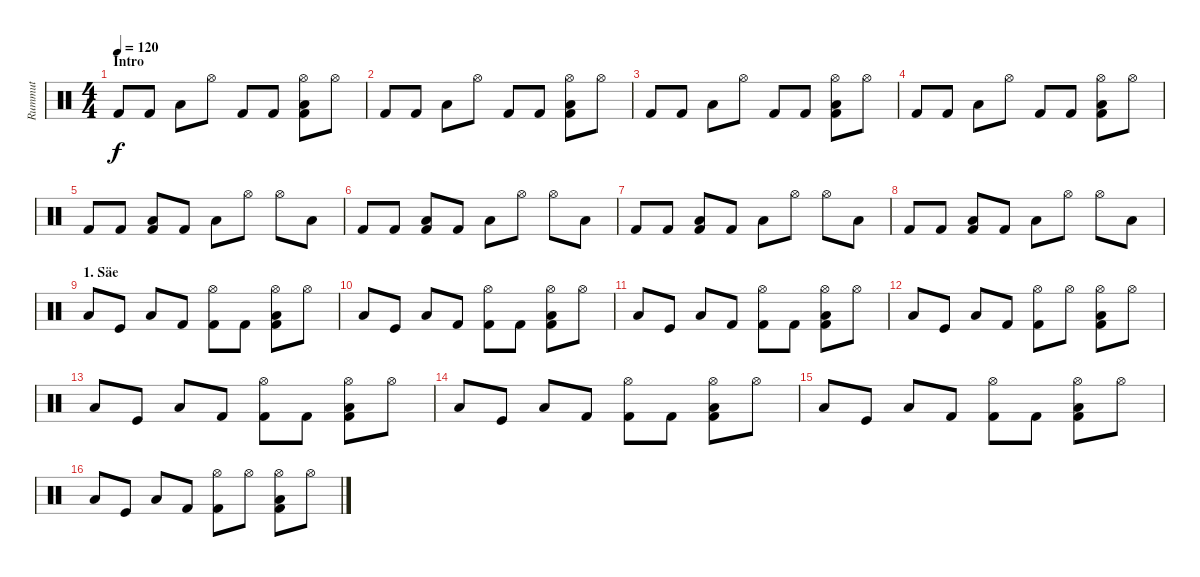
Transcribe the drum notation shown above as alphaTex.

\track ("Rummut" "Rummut") {instrument percussion}
\staff {score}
\articulation defaults
\ts (4 4)
\section ("" "Intro")
\tempo 120
\clef neutral
\ks c "Kick (hit) 2".8{dy f} "Kick (hit) 2".8 "Low Tom (hit)".8 "Hi-Hat (open)".8 "Kick (hit) 2".8 "Kick (hit) 2".8
("Low Tom (hit)" "Kick (hit) 2" "Hi-Hat (open)").8 "Hi-Hat (open)".8 |
"Kick (hit) 2".8 "Kick (hit) 2".8 "Low Tom (hit)".8 "Hi-Hat (open)".8 "Kick (hit) 2".8 "Kick (hit) 2".8 ("Low Tom (hit)" "Kick (hit) 2" "Hi-Hat (open)").8 "Hi-Hat (open)".8 |
"Kick (hit) 2".8 "Kick (hit) 2".8 "Low Tom (hit)".8 "Hi-Hat (open)".8 "Kick (hit) 2".8 "Kick (hit) 2".8 ("Low Tom (hit)" "Kick (hit) 2" "Hi-Hat (open)").8 "Hi-Hat (open)".8 |
"Kick (hit) 2".8 "Kick (hit) 2".8 "Low Tom (hit)".8 "Hi-Hat (open)".8 "Kick (hit) 2".8 "Kick (hit) 2".8 ("Low Tom (hit)" "Kick (hit) 2" "Hi-Hat (open)").8 "Hi-Hat (open)".8 |
"Kick (hit) 2".8 "Kick (hit) 2".8 ("Kick (hit) 2" "Low Tom (hit)").8 "Kick (hit) 2".8 "Low Tom (hit)".8 "Hi-Hat (open)".8 "Hi-Hat (open)".8 "Low Tom (hit)".8 |
"Kick (hit) 2".8 "Kick (hit) 2".8 ("Kick (hit) 2" "Low Tom (hit)").8 "Kick (hit) 2".8 "Low Tom (hit)".8 "Hi-Hat (open)".8 "Hi-Hat (open)".8 "Low Tom (hit)".8 |
"Kick (hit) 2".8 "Kick (hit) 2".8 ("Kick (hit) 2" "Low Tom (hit)").8 "Kick (hit) 2".8 "Low Tom (hit)".8 "Hi-Hat (open)".8 "Hi-Hat (open)".8 "Low Tom (hit)".8 |
"Kick (hit) 2".8 "Kick (hit) 2".8 ("Kick (hit) 2" "Low Tom (hit)").8 "Kick (hit) 2".8 "Low Tom (hit)".8 "Hi-Hat (open)".8 "Hi-Hat (open)".8 "Low Tom (hit)".8 |
\section ("" "1. Säe")
"Low Tom (hit)".8 "Kick (hit)".8 "Low Tom (hit)".8 "Kick (hit) 2".8 ("Hi-Hat (open)" "Kick (hit) 2").8 "Kick (hit) 2".8 ("Hi-Hat (open)" "Kick (hit) 2" "Low Tom (hit)").8 "Hi-Hat (open)".8 |
"Low Tom (hit)".8 "Kick (hit)".8 "Low Tom (hit)".8 "Kick (hit) 2".8 ("Hi-Hat (open)" "Kick (hit) 2").8 "Kick (hit) 2".8 ("Hi-Hat (open)" "Kick (hit) 2" "Low Tom (hit)").8 "Hi-Hat (open)".8 |
"Low Tom (hit)".8 "Kick (hit)".8 "Low Tom (hit)".8 "Kick (hit) 2".8 ("Hi-Hat (open)" "Kick (hit) 2").8 "Kick (hit) 2".8 ("Hi-Hat (open)" "Kick (hit) 2" "Low Tom (hit)").8 "Hi-Hat (open)".8 |
"Low Tom (hit)".8 "Kick (hit)".8 "Low Tom (hit)".8 "Kick (hit) 2".8 ("Hi-Hat (open)" "Kick (hit) 2").8 "Hi-Hat (open)".8 ("Hi-Hat (open)" "Kick (hit) 2" "Low Tom (hit)").8 "Hi-Hat (open)".8 |
"Low Tom (hit)".8 "Kick (hit)".8 "Low Tom (hit)".8 "Kick (hit) 2".8 ("Hi-Hat (open)" "Kick (hit) 2").8 "Kick (hit) 2".8 ("Hi-Hat (open)" "Kick (hit) 2" "Low Tom (hit)").8 "Hi-Hat (open)".8 |
"Low Tom (hit)".8 "Kick (hit)".8 "Low Tom (hit)".8 "Kick (hit) 2".8 ("Hi-Hat (open)" "Kick (hit) 2").8 "Kick (hit) 2".8 ("Hi-Hat (open)" "Kick (hit) 2" "Low Tom (hit)").8 "Hi-Hat (open)".8 |
"Low Tom (hit)".8 "Kick (hit)".8 "Low Tom (hit)".8 "Kick (hit) 2".8 ("Hi-Hat (open)" "Kick (hit) 2").8 "Kick (hit) 2".8 ("Hi-Hat (open)" "Kick (hit) 2" "Low Tom (hit)").8 "Hi-Hat (open)".8 |
"Low Tom (hit)".8 "Kick (hit)".8 "Low Tom (hit)".8 "Kick (hit) 2".8 ("Hi-Hat (open)" "Kick (hit) 2").8 "Hi-Hat (open)".8 ("Hi-Hat (open)" "Kick (hit) 2" "Low Tom (hit)").8 "Hi-Hat (open)".8
